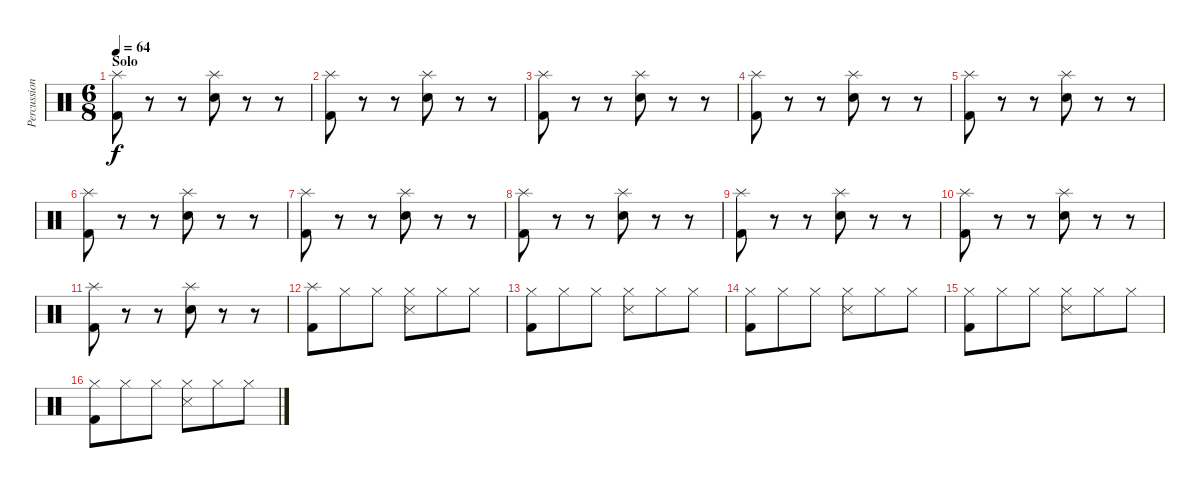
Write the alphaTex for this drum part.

\track ("Percussion" "Percussion") {instrument percussion}
\staff {score}
\articulation defaults
\ts (6 8)
\section ("" "Solo")
\tempo 64
\clef neutral
\ks c
("Splash (hit)" "Kick (hit) 2").8{dy f} r.8 r.8 ("Splash (hit)" "Electric Snare (hit)").8 r.8 r.8 |
("Splash (hit)" "Kick (hit) 2").8 r.8 r.8 ("Splash (hit)" "Electric Snare (hit)").8 r.8 r.8 |
("Splash (hit)" "Kick (hit) 2").8 r.8 r.8 ("Splash (hit)" "Electric Snare (hit)").8 r.8 r.8 |
("Splash (hit)" "Kick (hit) 2").8 r.8 r.8 ("Splash (hit)" "Electric Snare (hit)").8 r.8 r.8 |
("Splash (hit)" "Kick (hit) 2").8 r.8 r.8 ("Splash (hit)" "Electric Snare (hit)").8 r.8 r.8 |
("Splash (hit)" "Kick (hit) 2").8 r.8 r.8 ("Splash (hit)" "Electric Snare (hit)").8 r.8 r.8 |
("Splash (hit)" "Kick (hit) 2").8 r.8 r.8 ("Splash (hit)" "Electric Snare (hit)").8 r.8 r.8 |
("Splash (hit)" "Kick (hit) 2").8 r.8 r.8 ("Splash (hit)" "Electric Snare (hit)").8 r.8 r.8 |
("Splash (hit)" "Kick (hit) 2").8 r.8 r.8 ("Splash (hit)" "Electric Snare (hit)").8 r.8 r.8 |
("Splash (hit)" "Kick (hit) 2").8 r.8 r.8 ("Splash (hit)" "Electric Snare (hit)").8 r.8 r.8 |
("Splash (hit)" "Kick (hit) 2").8 r.8 r.8 ("Splash (hit)" "Electric Snare (hit)").8 r.8 r.8 |
("Splash (hit)" "Kick (hit) 2").8 "Hi-Hat (closed)".8 "Hi-Hat (closed)".8 ("Hi-Hat (closed)" "Snare (side stick) 3").8 "Hi-Hat (closed)".8 "Hi-Hat (closed)".8 |
("Hi-Hat (closed)" "Kick (hit) 2").8 "Hi-Hat (closed)".8 "Hi-Hat (closed)".8 ("Hi-Hat (closed)" "Snare (side stick) 3").8 "Hi-Hat (closed)".8 "Hi-Hat (closed)".8 |
("Hi-Hat (closed)" "Kick (hit) 2").8 "Hi-Hat (closed)".8 "Hi-Hat (closed)".8 ("Hi-Hat (closed)" "Snare (side stick) 3").8 "Hi-Hat (closed)".8 "Hi-Hat (closed)".8 |
("Hi-Hat (closed)" "Kick (hit) 2").8 "Hi-Hat (closed)".8 "Hi-Hat (closed)".8 ("Hi-Hat (closed)" "Snare (side stick) 3").8 "Hi-Hat (closed)".8 "Hi-Hat (closed)".8 |
("Hi-Hat (closed)" "Kick (hit) 2").8 "Hi-Hat (closed)".8 "Hi-Hat (closed)".8 ("Hi-Hat (closed)" "Snare (side stick) 3").8 "Hi-Hat (closed)".8 "Hi-Hat (closed)".8
